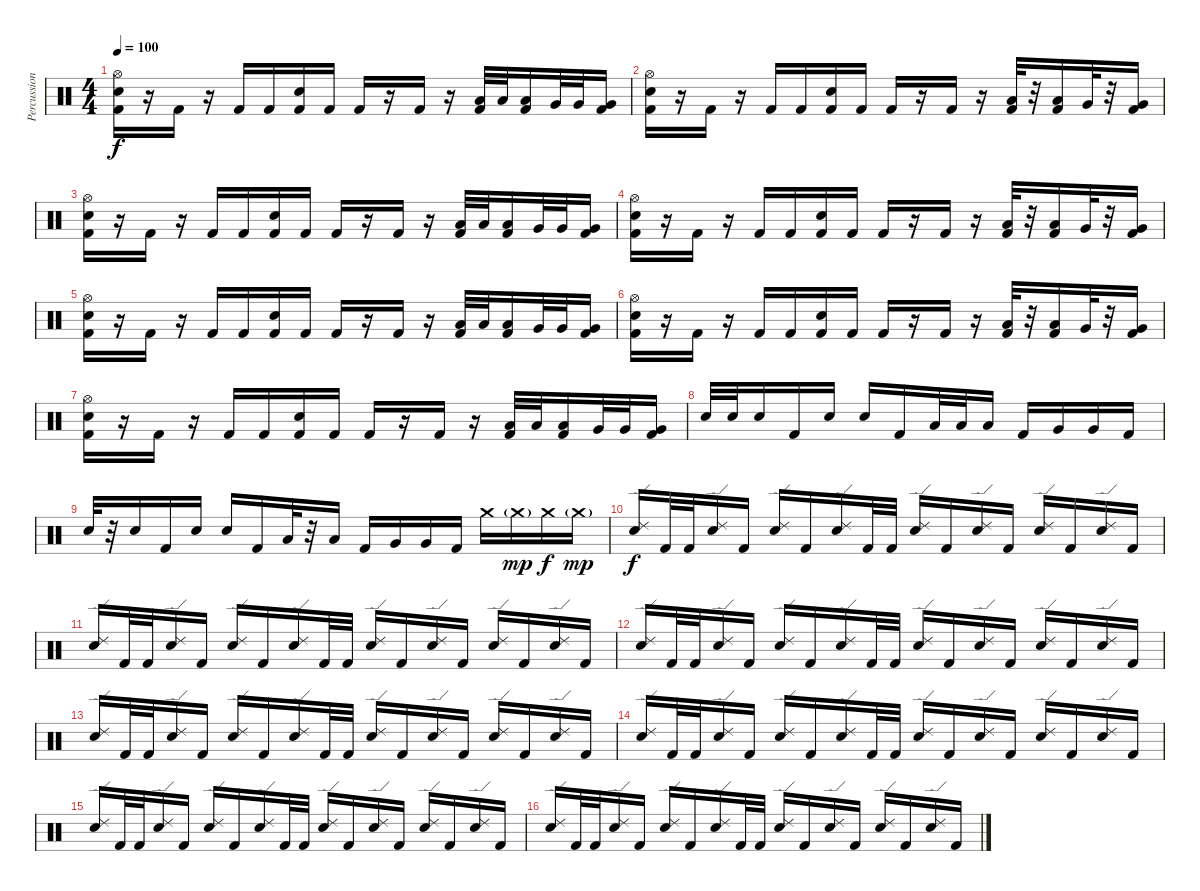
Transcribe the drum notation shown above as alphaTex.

\track ("Percussion" "Percussion") {instrument percussion}
\staff {score}
\articulation defaults
\ts (4 4)
\tempo 100
\clef neutral
\ks c
("Hi-Hat (open)" "Snare (hit) 2" "Kick (hit) 2").16{dy f} r.16 "Kick (hit) 2".16 r.16 "Kick (hit) 2".16 "Kick (hit) 2".16 ("Snare (hit) 2" "Kick (hit) 2").16 "Kick (hit) 2".16 "Kick (hit) 2".16 r.16 "Kick (hit) 2".16 r.16 ("Low Tom (hit)" "Kick (hit) 2").32 "Low Tom (hit)".32 ("Low Tom (hit)" "Kick (hit) 2").16 "Very Low Tom (hit)".32 "Very Low Tom (hit)".32 ("Very Low Tom (hit)" "Kick (hit) 2").16 |
("Hi-Hat (open)" "Snare (hit) 2" "Kick (hit) 2").16 r.16 "Kick (hit) 2".16 r.16 "Kick (hit) 2".16 "Kick (hit) 2".16 ("Snare (hit) 2" "Kick (hit) 2").16 "Kick (hit) 2".16 "Kick (hit) 2".16 r.16 "Kick (hit) 2".16 r.16 ("Low Tom (hit)" "Kick (hit) 2").32 r.32 ("Low Tom (hit)" "Kick (hit) 2").16 "Very Low Tom (hit)".32 r.32 ("Very Low Tom (hit)" "Kick (hit) 2").16 |
("Hi-Hat (open)" "Snare (hit) 2" "Kick (hit) 2").16 r.16 "Kick (hit) 2".16 r.16 "Kick (hit) 2".16 "Kick (hit) 2".16 ("Snare (hit) 2" "Kick (hit) 2").16 "Kick (hit) 2".16 "Kick (hit) 2".16 r.16 "Kick (hit) 2".16 r.16 ("Low Tom (hit)" "Kick (hit) 2").32 "Low Tom (hit)".32 ("Low Tom (hit)" "Kick (hit) 2").16 "Very Low Tom (hit)".32 "Very Low Tom (hit)".32 ("Very Low Tom (hit)" "Kick (hit) 2").16 |
("Hi-Hat (open)" "Snare (hit) 2" "Kick (hit) 2").16 r.16 "Kick (hit) 2".16 r.16 "Kick (hit) 2".16 "Kick (hit) 2".16 ("Snare (hit) 2" "Kick (hit) 2").16 "Kick (hit) 2".16 "Kick (hit) 2".16 r.16 "Kick (hit) 2".16 r.16 ("Low Tom (hit)" "Kick (hit) 2").32 r.32 ("Low Tom (hit)" "Kick (hit) 2").16 "Very Low Tom (hit)".32 r.32 ("Very Low Tom (hit)" "Kick (hit) 2").16 |
("Hi-Hat (open)" "Snare (hit) 2" "Kick (hit) 2").16 r.16 "Kick (hit) 2".16 r.16 "Kick (hit) 2".16 "Kick (hit) 2".16 ("Snare (hit) 2" "Kick (hit) 2").16 "Kick (hit) 2".16 "Kick (hit) 2".16 r.16 "Kick (hit) 2".16 r.16 ("Low Tom (hit)" "Kick (hit) 2").32 "Low Tom (hit)".32 ("Low Tom (hit)" "Kick (hit) 2").16 "Very Low Tom (hit)".32 "Very Low Tom (hit)".32 ("Very Low Tom (hit)" "Kick (hit) 2").16 |
("Hi-Hat (open)" "Snare (hit) 2" "Kick (hit) 2").16 r.16 "Kick (hit) 2".16 r.16 "Kick (hit) 2".16 "Kick (hit) 2".16 ("Snare (hit) 2" "Kick (hit) 2").16 "Kick (hit) 2".16 "Kick (hit) 2".16 r.16 "Kick (hit) 2".16 r.16 ("Low Tom (hit)" "Kick (hit) 2").32 r.32 ("Low Tom (hit)" "Kick (hit) 2").16 "Very Low Tom (hit)".32 r.32 ("Very Low Tom (hit)" "Kick (hit) 2").16 |
("Hi-Hat (open)" "Snare (hit) 2" "Kick (hit) 2").16 r.16 "Kick (hit) 2".16 r.16 "Kick (hit) 2".16 "Kick (hit) 2".16 ("Snare (hit) 2" "Kick (hit) 2").16 "Kick (hit) 2".16 "Kick (hit) 2".16 r.16 "Kick (hit) 2".16 r.16 ("Low Tom (hit)" "Kick (hit) 2").32 "Low Tom (hit)".32 ("Low Tom (hit)" "Kick (hit) 2").16 "Very Low Tom (hit)".32 "Very Low Tom (hit)".32 ("Very Low Tom (hit)" "Kick (hit) 2").16 |
"Snare (hit) 2".32 "Snare (hit) 2".32 "Snare (hit) 2".16 "Kick (hit) 2".16 "Snare (hit) 2".16 "Snare (hit) 2".16 "Kick (hit) 2".16 "Low Tom (hit)".32 "Low Tom (hit)".32 "Low Tom (hit)".16 "Kick (hit) 2".16 "Very Low Tom (hit)".16 "Very Low Tom (hit)".16 "Kick (hit) 2".16 |
"Snare (hit) 2".32 r.32 "Snare (hit) 2".16 "Kick (hit) 2".16 "Snare (hit) 2".16 "Snare (hit) 2".16 "Kick (hit) 2".16 "Low Tom (hit)".32 r.32 "Low Tom (hit)".16 "Kick (hit) 2".16 "Very Low Tom (hit)".16 "Very Low Tom (hit)".16 "Kick (hit) 2".16 "Crash medium (hit)".16 "Crash medium (hit)"{g}.16{dy mp} "Crash medium (hit)".16{dy f} "Crash medium (hit)"{g}.16{dy mp} |
("Ride (edge) 2" "Snare (hit) 2").16{dy f} "Kick (hit) 2".32 "Kick (hit) 2".32 ("Ride (edge) 2" "Snare (hit) 2").16 "Kick (hit) 2".16 ("Ride (edge) 2" "Snare (hit) 2").16 "Kick (hit) 2".16 ("Ride (edge) 2" "Snare (hit) 2").16 "Kick (hit) 2".32 "Kick (hit) 2".32 ("Ride (edge) 2" "Snare (hit) 2").16 "Kick (hit) 2".16 ("Ride (edge) 2" "Snare (hit) 2").16 "Kick (hit) 2".16 ("Ride (edge) 2" "Snare (hit) 2").16 "Kick (hit) 2".16 ("Ride (edge) 2" "Snare (hit) 2").16 "Kick (hit) 2".16 |
("Ride (edge) 2" "Snare (hit) 2").16 "Kick (hit) 2".32 "Kick (hit) 2".32 ("Ride (edge) 2" "Snare (hit) 2").16 "Kick (hit) 2".16 ("Ride (edge) 2" "Snare (hit) 2").16 "Kick (hit) 2".16 ("Ride (edge) 2" "Snare (hit) 2").16 "Kick (hit) 2".32 "Kick (hit) 2".32 ("Ride (edge) 2" "Snare (hit) 2").16 "Kick (hit) 2".16 ("Ride (edge) 2" "Snare (hit) 2").16 "Kick (hit) 2".16 ("Ride (edge) 2" "Snare (hit) 2").16 "Kick (hit) 2".16 ("Ride (edge) 2" "Snare (hit) 2").16 "Kick (hit) 2".16 |
("Ride (edge) 2" "Snare (hit) 2").16 "Kick (hit) 2".32 "Kick (hit) 2".32 ("Ride (edge) 2" "Snare (hit) 2").16 "Kick (hit) 2".16 ("Ride (edge) 2" "Snare (hit) 2").16 "Kick (hit) 2".16 ("Ride (edge) 2" "Snare (hit) 2").16 "Kick (hit) 2".32 "Kick (hit) 2".32 ("Ride (edge) 2" "Snare (hit) 2").16 "Kick (hit) 2".16 ("Ride (edge) 2" "Snare (hit) 2").16 "Kick (hit) 2".16 ("Ride (edge) 2" "Snare (hit) 2").16 "Kick (hit) 2".16 ("Ride (edge) 2" "Snare (hit) 2").16 "Kick (hit) 2".16 |
("Ride (edge) 2" "Snare (hit) 2").16 "Kick (hit) 2".32 "Kick (hit) 2".32 ("Ride (edge) 2" "Snare (hit) 2").16 "Kick (hit) 2".16 ("Ride (edge) 2" "Snare (hit) 2").16 "Kick (hit) 2".16 ("Ride (edge) 2" "Snare (hit) 2").16 "Kick (hit) 2".32 "Kick (hit) 2".32 ("Ride (edge) 2" "Snare (hit) 2").16 "Kick (hit) 2".16 ("Ride (edge) 2" "Snare (hit) 2").16 "Kick (hit) 2".16 ("Ride (edge) 2" "Snare (hit) 2").16 "Kick (hit) 2".16 ("Ride (edge) 2" "Snare (hit) 2").16 "Kick (hit) 2".16 |
("Ride (edge) 2" "Snare (hit) 2").16 "Kick (hit) 2".32 "Kick (hit) 2".32 ("Ride (edge) 2" "Snare (hit) 2").16 "Kick (hit) 2".16 ("Ride (edge) 2" "Snare (hit) 2").16 "Kick (hit) 2".16 ("Ride (edge) 2" "Snare (hit) 2").16 "Kick (hit) 2".32 "Kick (hit) 2".32 ("Ride (edge) 2" "Snare (hit) 2").16 "Kick (hit) 2".16 ("Ride (edge) 2" "Snare (hit) 2").16 "Kick (hit) 2".16 ("Ride (edge) 2" "Snare (hit) 2").16 "Kick (hit) 2".16 ("Ride (edge) 2" "Snare (hit) 2").16 "Kick (hit) 2".16 |
("Ride (edge) 2" "Snare (hit) 2").16 "Kick (hit) 2".32 "Kick (hit) 2".32 ("Ride (edge) 2" "Snare (hit) 2").16 "Kick (hit) 2".16 ("Ride (edge) 2" "Snare (hit) 2").16 "Kick (hit) 2".16 ("Ride (edge) 2" "Snare (hit) 2").16 "Kick (hit) 2".32 "Kick (hit) 2".32 ("Ride (edge) 2" "Snare (hit) 2").16 "Kick (hit) 2".16 ("Ride (edge) 2" "Snare (hit) 2").16 "Kick (hit) 2".16 ("Ride (edge) 2" "Snare (hit) 2").16 "Kick (hit) 2".16 ("Ride (edge) 2" "Snare (hit) 2").16 "Kick (hit) 2".16 |
("Ride (edge) 2" "Snare (hit) 2").16 "Kick (hit) 2".32 "Kick (hit) 2".32 ("Ride (edge) 2" "Snare (hit) 2").16 "Kick (hit) 2".16 ("Ride (edge) 2" "Snare (hit) 2").16 "Kick (hit) 2".16 ("Ride (edge) 2" "Snare (hit) 2").16 "Kick (hit) 2".32 "Kick (hit) 2".32 ("Ride (edge) 2" "Snare (hit) 2").16 "Kick (hit) 2".16 ("Ride (edge) 2" "Snare (hit) 2").16 "Kick (hit) 2".16 ("Ride (edge) 2" "Snare (hit) 2").16 "Kick (hit) 2".16 ("Ride (edge) 2" "Snare (hit) 2").16 "Kick (hit) 2".16
